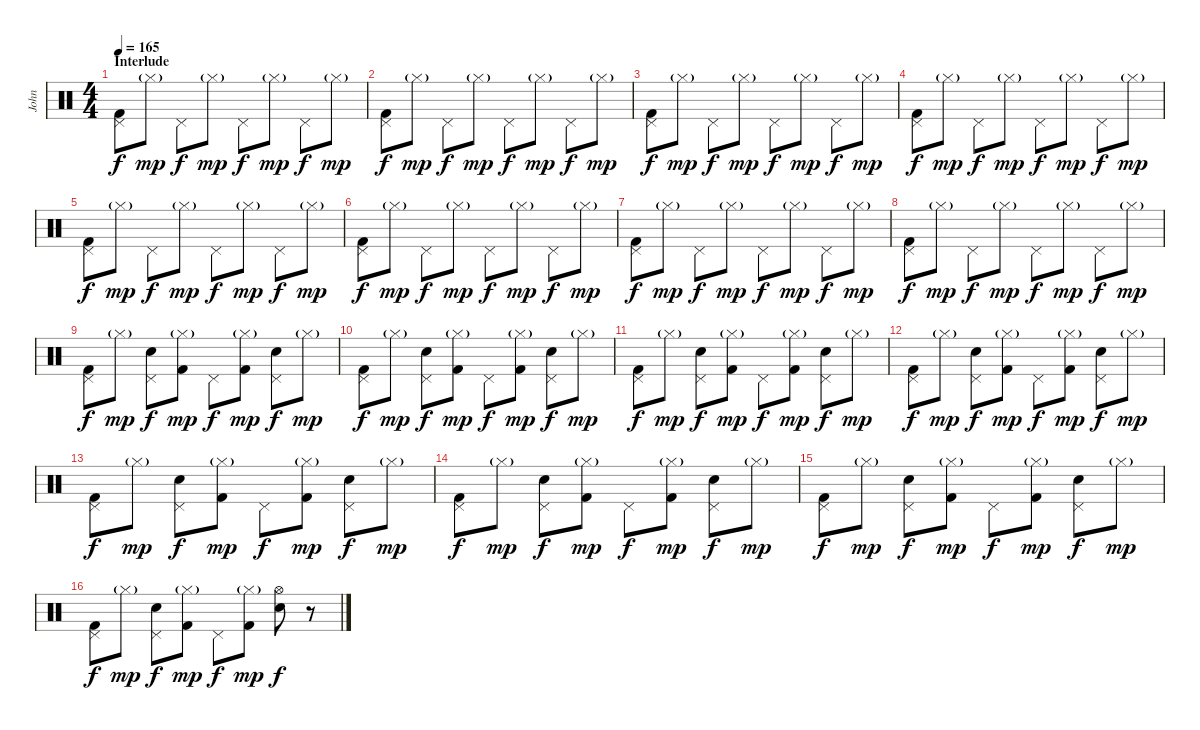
\track ("John" "John") {instrument percussion}
\staff {score}
\articulation defaults
\ts (4 4)
\section ("" "Interlude")
\tempo 165
\clef neutral
\ks c
("Pedal Hi-Hat (hit)" "Kick (hit) 2").8{dy f} "Hi-Hat (closed)"{g}.8{dy mp} "Pedal Hi-Hat (hit)".8{dy f} "Hi-Hat (closed)"{g}.8{dy mp} "Pedal Hi-Hat (hit)".8{dy f} "Hi-Hat (closed)"{g}.8{dy mp} "Pedal Hi-Hat (hit)".8{dy f} "Hi-Hat (closed)"{g}.8{dy mp} |
("Pedal Hi-Hat (hit)" "Kick (hit) 2").8{dy f} "Hi-Hat (closed)"{g}.8{dy mp} "Pedal Hi-Hat (hit)".8{dy f} "Hi-Hat (closed)"{g}.8{dy mp} "Pedal Hi-Hat (hit)".8{dy f} "Hi-Hat (closed)"{g}.8{dy mp} "Pedal Hi-Hat (hit)".8{dy f} "Hi-Hat (closed)"{g}.8{dy mp} |
("Pedal Hi-Hat (hit)" "Kick (hit) 2").8{dy f} "Hi-Hat (closed)"{g}.8{dy mp} "Pedal Hi-Hat (hit)".8{dy f} "Hi-Hat (closed)"{g}.8{dy mp} "Pedal Hi-Hat (hit)".8{dy f} "Hi-Hat (closed)"{g}.8{dy mp} "Pedal Hi-Hat (hit)".8{dy f} "Hi-Hat (closed)"{g}.8{dy mp} |
("Pedal Hi-Hat (hit)" "Kick (hit) 2").8{dy f} "Hi-Hat (closed)"{g}.8{dy mp} "Pedal Hi-Hat (hit)".8{dy f} "Hi-Hat (closed)"{g}.8{dy mp} "Pedal Hi-Hat (hit)".8{dy f} "Hi-Hat (closed)"{g}.8{dy mp} "Pedal Hi-Hat (hit)".8{dy f} "Hi-Hat (closed)"{g}.8{dy mp} |
("Pedal Hi-Hat (hit)" "Kick (hit) 2").8{dy f} "Hi-Hat (closed)"{g}.8{dy mp} "Pedal Hi-Hat (hit)".8{dy f} "Hi-Hat (closed)"{g}.8{dy mp} "Pedal Hi-Hat (hit)".8{dy f} "Hi-Hat (closed)"{g}.8{dy mp} "Pedal Hi-Hat (hit)".8{dy f} "Hi-Hat (closed)"{g}.8{dy mp} |
("Pedal Hi-Hat (hit)" "Kick (hit) 2").8{dy f} "Hi-Hat (closed)"{g}.8{dy mp} "Pedal Hi-Hat (hit)".8{dy f} "Hi-Hat (closed)"{g}.8{dy mp} "Pedal Hi-Hat (hit)".8{dy f} "Hi-Hat (closed)"{g}.8{dy mp} "Pedal Hi-Hat (hit)".8{dy f} "Hi-Hat (closed)"{g}.8{dy mp} |
("Pedal Hi-Hat (hit)" "Kick (hit) 2").8{dy f} "Hi-Hat (closed)"{g}.8{dy mp} "Pedal Hi-Hat (hit)".8{dy f} "Hi-Hat (closed)"{g}.8{dy mp} "Pedal Hi-Hat (hit)".8{dy f} "Hi-Hat (closed)"{g}.8{dy mp} "Pedal Hi-Hat (hit)".8{dy f} "Hi-Hat (closed)"{g}.8{dy mp} |
("Pedal Hi-Hat (hit)" "Kick (hit) 2").8{dy f} "Hi-Hat (closed)"{g}.8{dy mp} "Pedal Hi-Hat (hit)".8{dy f} "Hi-Hat (closed)"{g}.8{dy mp} "Pedal Hi-Hat (hit)".8{dy f} "Hi-Hat (closed)"{g}.8{dy mp} "Pedal Hi-Hat (hit)".8{dy f} "Hi-Hat (closed)"{g}.8{dy mp} |
("Pedal Hi-Hat (hit)" "Kick (hit) 2").8{dy f} "Hi-Hat (closed)"{g}.8{dy mp} ("Pedal Hi-Hat (hit)" "Electric Snare (hit)").8{dy f} ("Hi-Hat (closed)"{g} "Kick (hit) 2").8{dy mp} "Pedal Hi-Hat (hit)".8{dy f} ("Hi-Hat (closed)"{g} "Kick (hit) 2").8{dy mp} ("Pedal Hi-Hat (hit)" "Electric Snare (hit)").8{dy f} "Hi-Hat (closed)"{g}.8{dy mp} |
("Pedal Hi-Hat (hit)" "Kick (hit) 2").8{dy f} "Hi-Hat (closed)"{g}.8{dy mp} ("Pedal Hi-Hat (hit)" "Electric Snare (hit)").8{dy f} ("Hi-Hat (closed)"{g} "Kick (hit) 2").8{dy mp} "Pedal Hi-Hat (hit)".8{dy f} ("Hi-Hat (closed)"{g} "Kick (hit) 2").8{dy mp} ("Pedal Hi-Hat (hit)" "Electric Snare (hit)").8{dy f} "Hi-Hat (closed)"{g}.8{dy mp} |
("Pedal Hi-Hat (hit)" "Kick (hit) 2").8{dy f} "Hi-Hat (closed)"{g}.8{dy mp} ("Pedal Hi-Hat (hit)" "Electric Snare (hit)").8{dy f} ("Hi-Hat (closed)"{g} "Kick (hit) 2").8{dy mp} "Pedal Hi-Hat (hit)".8{dy f} ("Hi-Hat (closed)"{g} "Kick (hit) 2").8{dy mp} ("Pedal Hi-Hat (hit)" "Electric Snare (hit)").8{dy f} "Hi-Hat (closed)"{g}.8{dy mp} |
("Pedal Hi-Hat (hit)" "Kick (hit) 2").8{dy f} "Hi-Hat (closed)"{g}.8{dy mp} ("Pedal Hi-Hat (hit)" "Electric Snare (hit)").8{dy f} ("Hi-Hat (closed)"{g} "Kick (hit) 2").8{dy mp} "Pedal Hi-Hat (hit)".8{dy f} ("Hi-Hat (closed)"{g} "Kick (hit) 2").8{dy mp} ("Pedal Hi-Hat (hit)" "Electric Snare (hit)").8{dy f} "Hi-Hat (closed)"{g}.8{dy mp} |
("Pedal Hi-Hat (hit)" "Kick (hit) 2").8{dy f} "Hi-Hat (closed)"{g}.8{dy mp} ("Pedal Hi-Hat (hit)" "Electric Snare (hit)").8{dy f} ("Hi-Hat (closed)"{g} "Kick (hit) 2").8{dy mp} "Pedal Hi-Hat (hit)".8{dy f} ("Hi-Hat (closed)"{g} "Kick (hit) 2").8{dy mp} ("Pedal Hi-Hat (hit)" "Electric Snare (hit)").8{dy f} "Hi-Hat (closed)"{g}.8{dy mp} |
("Pedal Hi-Hat (hit)" "Kick (hit) 2").8{dy f} "Hi-Hat (closed)"{g}.8{dy mp} ("Pedal Hi-Hat (hit)" "Electric Snare (hit)").8{dy f} ("Hi-Hat (closed)"{g} "Kick (hit) 2").8{dy mp} "Pedal Hi-Hat (hit)".8{dy f} ("Hi-Hat (closed)"{g} "Kick (hit) 2").8{dy mp} ("Pedal Hi-Hat (hit)" "Electric Snare (hit)").8{dy f} "Hi-Hat (closed)"{g}.8{dy mp} |
("Pedal Hi-Hat (hit)" "Kick (hit) 2").8{dy f} "Hi-Hat (closed)"{g}.8{dy mp} ("Pedal Hi-Hat (hit)" "Electric Snare (hit)").8{dy f} ("Hi-Hat (closed)"{g} "Kick (hit) 2").8{dy mp} "Pedal Hi-Hat (hit)".8{dy f} ("Hi-Hat (closed)"{g} "Kick (hit) 2").8{dy mp} ("Pedal Hi-Hat (hit)" "Electric Snare (hit)").8{dy f} "Hi-Hat (closed)"{g}.8{dy mp} |
("Pedal Hi-Hat (hit)" "Kick (hit) 2").8{dy f} "Hi-Hat (closed)"{g}.8{dy mp} ("Pedal Hi-Hat (hit)" "Electric Snare (hit)").8{dy f} ("Hi-Hat (closed)"{g} "Kick (hit) 2").8{dy mp} "Pedal Hi-Hat (hit)".8{dy f} ("Hi-Hat (closed)"{g} "Kick (hit) 2").8{dy mp} ("Hi-Hat (open)" "Electric Snare (hit)").8{dy f} r.8
